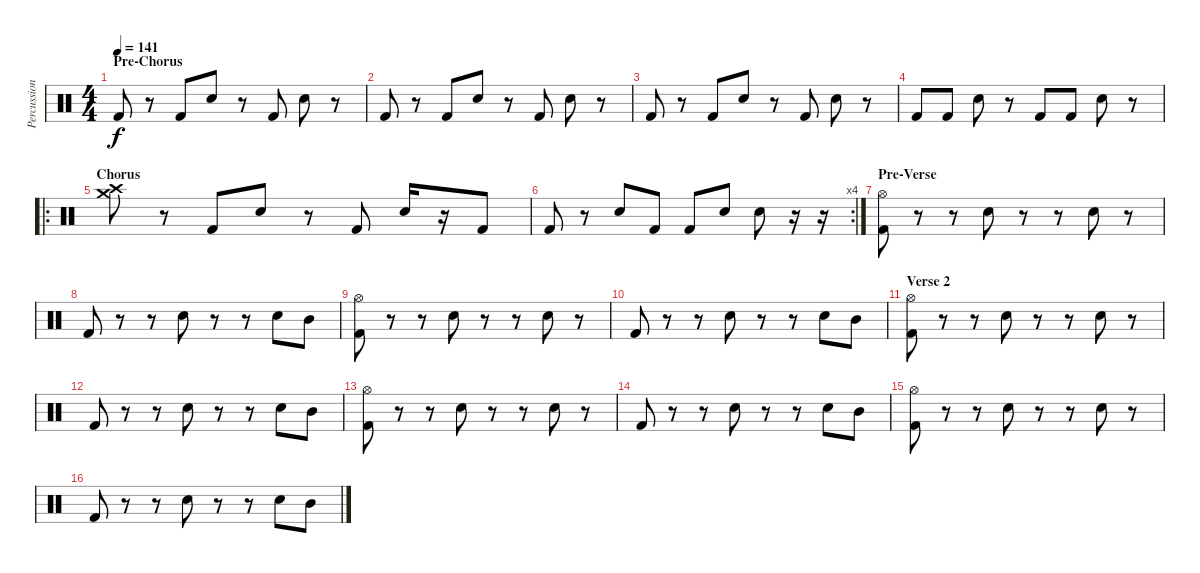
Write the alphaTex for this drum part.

\track ("Percussion" "Percussion") {instrument percussion}
\staff {score}
\articulation defaults
\ts (4 4)
\section ("" "Pre-Chorus")
\tempo 141
\clef neutral
\ks c "Kick (hit) 2".8{dy f}
r.8 "Kick (hit) 2".8 "Electric Snare (hit)".8 r.8 "Kick (hit) 2".8 "Electric Snare (hit)".8 r.8 |
"Kick (hit) 2".8 r.8 "Kick (hit) 2".8 "Electric Snare (hit)".8 r.8 "Kick (hit) 2".8 "Electric Snare (hit)".8 r.8 |
"Kick (hit) 2".8 r.8 "Kick (hit) 2".8 "Electric Snare (hit)".8 r.8 "Kick (hit) 2".8 "Electric Snare (hit)".8 r.8 |
"Kick (hit) 2".8 "Kick (hit) 2".8 "Electric Snare (hit)".8 r.8 "Kick (hit) 2".8 "Kick (hit) 2".8 "Electric Snare (hit)".8 r.8 |
\ro
\section ("" "Chorus")
("Crash high (hit)" "Crash medium (hit)").8 r.8 "Kick (hit) 2".8 "Electric Snare (hit)".8 r.8 "Kick (hit) 2".8 "Electric Snare (hit)".16 r.16 "Kick (hit) 2".8 |
\rc 4 "Kick (hit) 2".8
r.8 "Electric Snare (hit)".8 "Kick (hit) 2".8 "Kick (hit) 2".8 "Electric Snare (hit)".8 "Electric Snare (hit)".8 r.16 r.16 |
\section ("" "Pre-Verse")
("Hi-Hat (open)" "Kick (hit) 2").8 r.8 r.8 "Electric Snare (hit)".8 r.8 r.8 "Electric Snare (hit)".8 r.8 |
"Kick (hit) 2".8 r.8 r.8 "Electric Snare (hit)".8 r.8 r.8 "Electric Snare (hit)".8 "Mid Tom (hit)".8 |
("Hi-Hat (open)" "Kick (hit) 2").8 r.8 r.8 "Electric Snare (hit)".8 r.8 r.8 "Electric Snare (hit)".8 r.8 |
"Kick (hit) 2".8 r.8 r.8 "Electric Snare (hit)".8 r.8 r.8 "Electric Snare (hit)".8 "Mid Tom (hit)".8 |
\section ("" "Verse 2")
("Hi-Hat (open)" "Kick (hit) 2").8 r.8 r.8 "Electric Snare (hit)".8 r.8 r.8 "Electric Snare (hit)".8 r.8 |
"Kick (hit) 2".8 r.8 r.8 "Electric Snare (hit)".8 r.8 r.8 "Electric Snare (hit)".8 "Mid Tom (hit)".8 |
("Hi-Hat (open)" "Kick (hit) 2").8 r.8 r.8 "Electric Snare (hit)".8 r.8 r.8 "Electric Snare (hit)".8 r.8 |
"Kick (hit) 2".8 r.8 r.8 "Electric Snare (hit)".8 r.8 r.8 "Electric Snare (hit)".8 "Mid Tom (hit)".8 |
("Hi-Hat (open)" "Kick (hit) 2").8 r.8 r.8 "Electric Snare (hit)".8 r.8 r.8 "Electric Snare (hit)".8 r.8 |
"Kick (hit) 2".8 r.8 r.8 "Electric Snare (hit)".8 r.8 r.8 "Electric Snare (hit)".8 "Mid Tom (hit)".8
